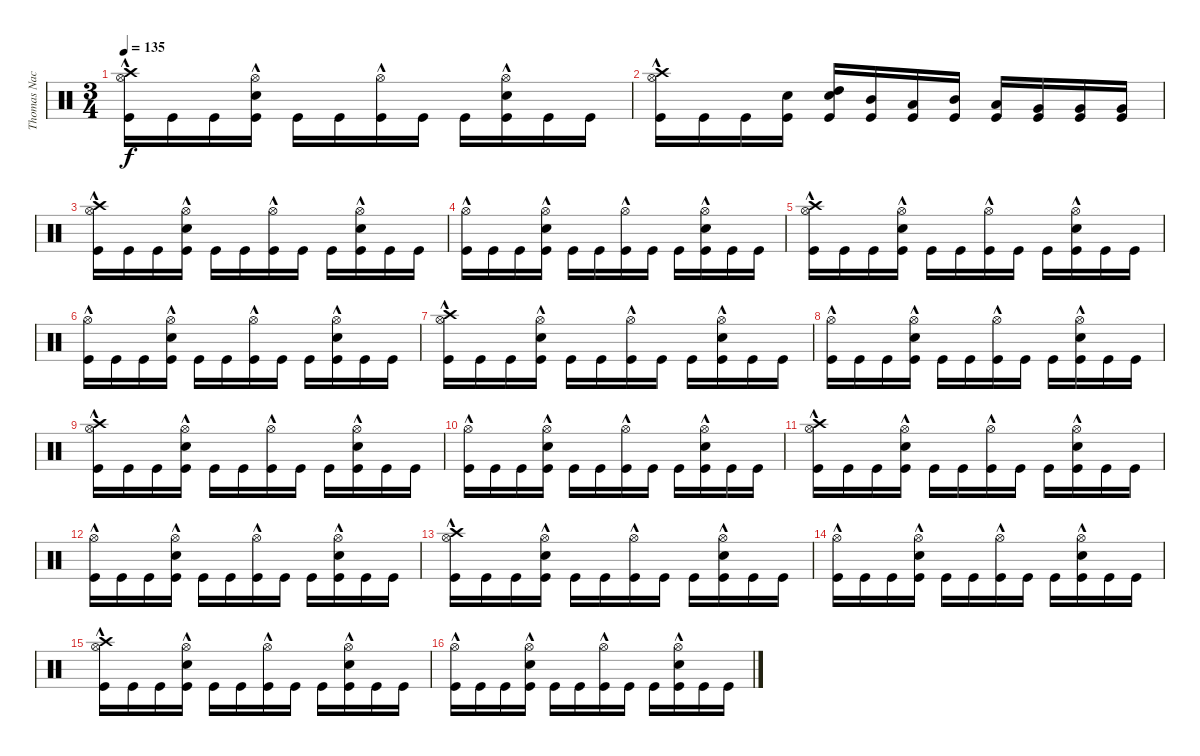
\track ("Thomas Nack" "Thomas Nac") {instrument percussion}
\staff {score}
\articulation defaults
\ts (3 4)
\tempo 135
\clef neutral
\ks c
("Crash high (hit)" "Hi-Hat (open)"{hac} "Kick (hit)").16{dy f} "Kick (hit)".16 "Kick (hit)".16 ("Hi-Hat (open)"{hac} "Kick (hit)" "Electric Snare (hit)").16 "Kick (hit)".16 "Kick (hit)".16 ("Hi-Hat (open)"{hac} "Kick (hit)").16 "Kick (hit)".16 "Kick (hit)".16 ("Hi-Hat (open)"{hac} "Kick (hit)" "Electric Snare (hit)").16 "Kick (hit)".16 "Kick (hit)".16 |
("Crash high (hit)" "Hi-Hat (open)"{hac} "Kick (hit)").16 "Kick (hit)".16 "Kick (hit)".16 ("Electric Snare (hit)" "Kick (hit)").16 ("Electric Snare (hit)" "High Tom (hit)" "Kick (hit)").16 ("Mid Tom (hit)" "Kick (hit)").16 ("Low Tom (hit)" "Kick (hit)").16 ("Mid Tom (hit)" "Kick (hit)").16 ("Low Tom (hit)" "Kick (hit)").16 ("Very Low Tom (hit)" "Kick (hit)").16 ("Very Low Tom (hit)" "Kick (hit)").16 ("Very Low Tom (hit)" "Kick (hit)").16 |
("Crash high (hit)" "Hi-Hat (open)"{hac} "Kick (hit)").16 "Kick (hit)".16 "Kick (hit)".16 ("Hi-Hat (open)"{hac} "Kick (hit)" "Electric Snare (hit)").16 "Kick (hit)".16 "Kick (hit)".16 ("Hi-Hat (open)"{hac} "Kick (hit)").16 "Kick (hit)".16 "Kick (hit)".16 ("Hi-Hat (open)"{hac} "Kick (hit)" "Electric Snare (hit)").16 "Kick (hit)".16 "Kick (hit)".16 |
("Hi-Hat (open)"{hac} "Kick (hit)").16 "Kick (hit)".16 "Kick (hit)".16 ("Hi-Hat (open)"{hac} "Kick (hit)" "Electric Snare (hit)").16 "Kick (hit)".16 "Kick (hit)".16 ("Hi-Hat (open)"{hac} "Kick (hit)").16 "Kick (hit)".16 "Kick (hit)".16 ("Hi-Hat (open)"{hac} "Kick (hit)" "Electric Snare (hit)").16 "Kick (hit)".16 "Kick (hit)".16 |
("Crash high (hit)" "Hi-Hat (open)"{hac} "Kick (hit)").16 "Kick (hit)".16 "Kick (hit)".16 ("Hi-Hat (open)"{hac} "Kick (hit)" "Electric Snare (hit)").16 "Kick (hit)".16 "Kick (hit)".16 ("Hi-Hat (open)"{hac} "Kick (hit)").16 "Kick (hit)".16 "Kick (hit)".16 ("Hi-Hat (open)"{hac} "Kick (hit)" "Electric Snare (hit)").16 "Kick (hit)".16 "Kick (hit)".16 |
("Hi-Hat (open)"{hac} "Kick (hit)").16 "Kick (hit)".16 "Kick (hit)".16 ("Hi-Hat (open)"{hac} "Kick (hit)" "Electric Snare (hit)").16 "Kick (hit)".16 "Kick (hit)".16 ("Hi-Hat (open)"{hac} "Kick (hit)").16 "Kick (hit)".16 "Kick (hit)".16 ("Hi-Hat (open)"{hac} "Kick (hit)" "Electric Snare (hit)").16 "Kick (hit)".16 "Kick (hit)".16 |
("Crash high (hit)" "Hi-Hat (open)"{hac} "Kick (hit)").16 "Kick (hit)".16 "Kick (hit)".16 ("Hi-Hat (open)"{hac} "Kick (hit)" "Electric Snare (hit)").16 "Kick (hit)".16 "Kick (hit)".16 ("Hi-Hat (open)"{hac} "Kick (hit)").16 "Kick (hit)".16 "Kick (hit)".16 ("Hi-Hat (open)"{hac} "Kick (hit)" "Electric Snare (hit)").16 "Kick (hit)".16 "Kick (hit)".16 |
("Hi-Hat (open)"{hac} "Kick (hit)").16 "Kick (hit)".16 "Kick (hit)".16 ("Hi-Hat (open)"{hac} "Kick (hit)" "Electric Snare (hit)").16 "Kick (hit)".16 "Kick (hit)".16 ("Hi-Hat (open)"{hac} "Kick (hit)").16 "Kick (hit)".16 "Kick (hit)".16 ("Hi-Hat (open)"{hac} "Kick (hit)" "Electric Snare (hit)").16 "Kick (hit)".16 "Kick (hit)".16 |
("Crash high (hit)" "Hi-Hat (open)"{hac} "Kick (hit)").16 "Kick (hit)".16 "Kick (hit)".16 ("Hi-Hat (open)"{hac} "Kick (hit)" "Electric Snare (hit)").16 "Kick (hit)".16 "Kick (hit)".16 ("Hi-Hat (open)"{hac} "Kick (hit)").16 "Kick (hit)".16 "Kick (hit)".16 ("Hi-Hat (open)"{hac} "Kick (hit)" "Electric Snare (hit)").16 "Kick (hit)".16 "Kick (hit)".16 |
("Hi-Hat (open)"{hac} "Kick (hit)").16 "Kick (hit)".16 "Kick (hit)".16 ("Hi-Hat (open)"{hac} "Kick (hit)" "Electric Snare (hit)").16 "Kick (hit)".16 "Kick (hit)".16 ("Hi-Hat (open)"{hac} "Kick (hit)").16 "Kick (hit)".16 "Kick (hit)".16 ("Hi-Hat (open)"{hac} "Kick (hit)" "Electric Snare (hit)").16 "Kick (hit)".16 "Kick (hit)".16 |
("Crash high (hit)" "Hi-Hat (open)"{hac} "Kick (hit)").16 "Kick (hit)".16 "Kick (hit)".16 ("Hi-Hat (open)"{hac} "Kick (hit)" "Electric Snare (hit)").16 "Kick (hit)".16 "Kick (hit)".16 ("Hi-Hat (open)"{hac} "Kick (hit)").16 "Kick (hit)".16 "Kick (hit)".16 ("Hi-Hat (open)"{hac} "Kick (hit)" "Electric Snare (hit)").16 "Kick (hit)".16 "Kick (hit)".16 |
("Hi-Hat (open)"{hac} "Kick (hit)").16 "Kick (hit)".16 "Kick (hit)".16 ("Hi-Hat (open)"{hac} "Kick (hit)" "Electric Snare (hit)").16 "Kick (hit)".16 "Kick (hit)".16 ("Hi-Hat (open)"{hac} "Kick (hit)").16 "Kick (hit)".16 "Kick (hit)".16 ("Hi-Hat (open)"{hac} "Kick (hit)" "Electric Snare (hit)").16 "Kick (hit)".16 "Kick (hit)".16 |
("Crash high (hit)" "Hi-Hat (open)"{hac} "Kick (hit)").16 "Kick (hit)".16 "Kick (hit)".16 ("Hi-Hat (open)"{hac} "Kick (hit)" "Electric Snare (hit)").16 "Kick (hit)".16 "Kick (hit)".16 ("Hi-Hat (open)"{hac} "Kick (hit)").16 "Kick (hit)".16 "Kick (hit)".16 ("Hi-Hat (open)"{hac} "Kick (hit)" "Electric Snare (hit)").16 "Kick (hit)".16 "Kick (hit)".16 |
("Hi-Hat (open)"{hac} "Kick (hit)").16 "Kick (hit)".16 "Kick (hit)".16 ("Hi-Hat (open)"{hac} "Kick (hit)" "Electric Snare (hit)").16 "Kick (hit)".16 "Kick (hit)".16 ("Hi-Hat (open)"{hac} "Kick (hit)").16 "Kick (hit)".16 "Kick (hit)".16 ("Hi-Hat (open)"{hac} "Kick (hit)" "Electric Snare (hit)").16 "Kick (hit)".16 "Kick (hit)".16 |
("Crash high (hit)" "Hi-Hat (open)"{hac} "Kick (hit)").16 "Kick (hit)".16 "Kick (hit)".16 ("Hi-Hat (open)"{hac} "Kick (hit)" "Electric Snare (hit)").16 "Kick (hit)".16 "Kick (hit)".16 ("Hi-Hat (open)"{hac} "Kick (hit)").16 "Kick (hit)".16 "Kick (hit)".16 ("Hi-Hat (open)"{hac} "Kick (hit)" "Electric Snare (hit)").16 "Kick (hit)".16 "Kick (hit)".16 |
("Hi-Hat (open)"{hac} "Kick (hit)").16 "Kick (hit)".16 "Kick (hit)".16 ("Hi-Hat (open)"{hac} "Kick (hit)" "Electric Snare (hit)").16 "Kick (hit)".16 "Kick (hit)".16 ("Hi-Hat (open)"{hac} "Kick (hit)").16 "Kick (hit)".16 "Kick (hit)".16 ("Hi-Hat (open)"{hac} "Kick (hit)" "Electric Snare (hit)").16 "Kick (hit)".16 "Kick (hit)".16
